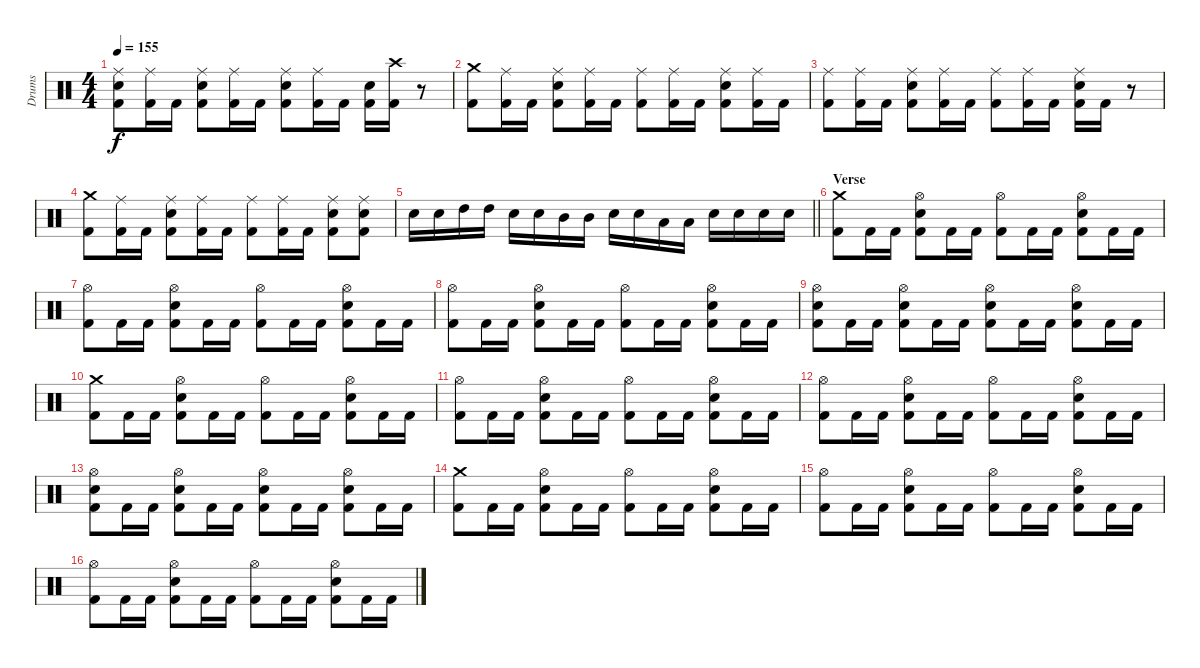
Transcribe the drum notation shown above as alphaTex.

\track ("Drums" "Drums") {instrument percussion}
\staff {score}
\articulation defaults
\ts (4 4)
\tempo 155
\clef neutral
\ks c
("Ride (middle)" "Electric Snare (hit)" "Kick (hit) 2").8{dy f} ("Ride (middle)" "Kick (hit) 2").16 "Kick (hit) 2".16 ("Ride (middle)" "Electric Snare (hit)" "Kick (hit) 2").8 ("Ride (middle)" "Kick (hit) 2").16 "Kick (hit) 2".16 ("Ride (middle)" "Electric Snare (hit)" "Kick (hit) 2").8 ("Ride (middle)" "Kick (hit) 2").16 "Kick (hit) 2".16 ("Electric Snare (hit)" "Kick (hit) 2").16 ("Crash high (hit)" "Kick (hit) 2").16 r.8 |
("Crash medium (hit)" "Kick (hit) 2").8 ("Ride (middle)" "Kick (hit) 2").16 "Kick (hit) 2".16 ("Ride (middle)" "Electric Snare (hit)" "Kick (hit) 2").8 ("Ride (middle)" "Kick (hit) 2").16 "Kick (hit) 2".16 ("Ride (middle)" "Kick (hit) 2").8 ("Ride (middle)" "Kick (hit) 2").16 "Kick (hit) 2".16 ("Ride (middle)" "Electric Snare (hit)" "Kick (hit) 2").8 ("Ride (middle)" "Kick (hit) 2").16 "Kick (hit) 2".16 |
("Ride (middle)" "Kick (hit) 2").8 ("Ride (middle)" "Kick (hit) 2").16 "Kick (hit) 2".16 ("Ride (middle)" "Electric Snare (hit)" "Kick (hit) 2").8 ("Ride (middle)" "Kick (hit) 2").16 "Kick (hit) 2".16 ("Ride (middle)" "Kick (hit) 2").8 ("Ride (middle)" "Kick (hit) 2").16 "Kick (hit) 2".16 ("Ride (middle)" "Electric Snare (hit)" "Kick (hit) 2").16 "Kick (hit) 2".16 r.8 |
("Crash medium (hit)" "Kick (hit) 2").8 ("Ride (middle)" "Kick (hit) 2").16 "Kick (hit) 2".16 ("Ride (middle)" "Electric Snare (hit)" "Kick (hit) 2").8 ("Ride (middle)" "Kick (hit) 2").16 "Kick (hit) 2".16 ("Ride (middle)" "Kick (hit) 2").8 ("Ride (middle)" "Kick (hit) 2").16 "Kick (hit) 2".16 ("Ride (middle)" "Electric Snare (hit)" "Kick (hit) 2").8 ("Ride (middle)" "Electric Snare (hit)" "Kick (hit) 2").8 |
\barLineRight lightlight "Electric Snare (hit)".16 "Electric Snare (hit)".16 "High Tom (hit)".16 "High Tom (hit)".16 "Electric Snare (hit)".16 "Electric Snare (hit)".16 "Mid Tom (hit)".16 "Mid Tom (hit)".16 "Electric Snare (hit)".16 "Electric Snare (hit)".16 "Low Tom (hit)".16 "Low Tom (hit)".16 "Electric Snare (hit)".16 "Electric Snare (hit)".16 "Electric Snare (hit)".16 "Electric Snare (hit)".16
|
\section ("" "Verse")
("Crash medium (hit)" "Kick (hit) 2").8 "Kick (hit) 2".16 "Kick (hit) 2".16 ("Hi-Hat (open)" "Electric Snare (hit)" "Kick (hit) 2").8 "Kick (hit) 2".16 "Kick (hit) 2".16 ("Hi-Hat (open)" "Kick (hit) 2").8 "Kick (hit) 2".16 "Kick (hit) 2".16 ("Hi-Hat (open)" "Electric Snare (hit)" "Kick (hit) 2").8 "Kick (hit) 2".16 "Kick (hit) 2".16 |
("Hi-Hat (open)" "Kick (hit) 2").8 "Kick (hit) 2".16 "Kick (hit) 2".16 ("Hi-Hat (open)" "Electric Snare (hit)" "Kick (hit) 2").8 "Kick (hit) 2".16 "Kick (hit) 2".16 ("Hi-Hat (open)" "Kick (hit) 2").8 "Kick (hit) 2".16 "Kick (hit) 2".16 ("Hi-Hat (open)" "Electric Snare (hit)" "Kick (hit) 2").8 "Kick (hit) 2".16 "Kick (hit) 2".16 |
("Hi-Hat (open)" "Kick (hit) 2").8 "Kick (hit) 2".16 "Kick (hit) 2".16 ("Hi-Hat (open)" "Electric Snare (hit)" "Kick (hit) 2").8 "Kick (hit) 2".16 "Kick (hit) 2".16 ("Hi-Hat (open)" "Kick (hit) 2").8 "Kick (hit) 2".16 "Kick (hit) 2".16 ("Hi-Hat (open)" "Electric Snare (hit)" "Kick (hit) 2").8 "Kick (hit) 2".16 "Kick (hit) 2".16 |
("Hi-Hat (open)" "Electric Snare (hit)" "Kick (hit) 2").8 "Kick (hit) 2".16 "Kick (hit) 2".16 ("Hi-Hat (open)" "Electric Snare (hit)" "Kick (hit) 2").8 "Kick (hit) 2".16 "Kick (hit) 2".16 ("Hi-Hat (open)" "Electric Snare (hit)" "Kick (hit) 2").8 "Kick (hit) 2".16 "Kick (hit) 2".16 ("Hi-Hat (open)" "Electric Snare (hit)" "Kick (hit) 2").8 "Kick (hit) 2".16 "Kick (hit) 2".16 |
("Crash medium (hit)" "Kick (hit) 2").8 "Kick (hit) 2".16 "Kick (hit) 2".16 ("Hi-Hat (open)" "Electric Snare (hit)" "Kick (hit) 2").8 "Kick (hit) 2".16 "Kick (hit) 2".16 ("Hi-Hat (open)" "Kick (hit) 2").8 "Kick (hit) 2".16 "Kick (hit) 2".16 ("Hi-Hat (open)" "Electric Snare (hit)" "Kick (hit) 2").8 "Kick (hit) 2".16 "Kick (hit) 2".16 |
("Hi-Hat (open)" "Kick (hit) 2").8 "Kick (hit) 2".16 "Kick (hit) 2".16 ("Hi-Hat (open)" "Electric Snare (hit)" "Kick (hit) 2").8 "Kick (hit) 2".16 "Kick (hit) 2".16 ("Hi-Hat (open)" "Kick (hit) 2").8 "Kick (hit) 2".16 "Kick (hit) 2".16 ("Hi-Hat (open)" "Electric Snare (hit)" "Kick (hit) 2").8 "Kick (hit) 2".16 "Kick (hit) 2".16 |
("Hi-Hat (open)" "Kick (hit) 2").8 "Kick (hit) 2".16 "Kick (hit) 2".16 ("Hi-Hat (open)" "Electric Snare (hit)" "Kick (hit) 2").8 "Kick (hit) 2".16 "Kick (hit) 2".16 ("Hi-Hat (open)" "Kick (hit) 2").8 "Kick (hit) 2".16 "Kick (hit) 2".16 ("Hi-Hat (open)" "Electric Snare (hit)" "Kick (hit) 2").8 "Kick (hit) 2".16 "Kick (hit) 2".16 |
("Hi-Hat (open)" "Electric Snare (hit)" "Kick (hit) 2").8 "Kick (hit) 2".16 "Kick (hit) 2".16 ("Hi-Hat (open)" "Electric Snare (hit)" "Kick (hit) 2").8 "Kick (hit) 2".16 "Kick (hit) 2".16 ("Hi-Hat (open)" "Electric Snare (hit)" "Kick (hit) 2").8 "Kick (hit) 2".16 "Kick (hit) 2".16 ("Hi-Hat (open)" "Electric Snare (hit)" "Kick (hit) 2").8 "Kick (hit) 2".16 "Kick (hit) 2".16 |
("Crash medium (hit)" "Kick (hit) 2").8 "Kick (hit) 2".16 "Kick (hit) 2".16 ("Hi-Hat (open)" "Electric Snare (hit)" "Kick (hit) 2").8 "Kick (hit) 2".16 "Kick (hit) 2".16 ("Hi-Hat (open)" "Kick (hit) 2").8 "Kick (hit) 2".16 "Kick (hit) 2".16 ("Hi-Hat (open)" "Electric Snare (hit)" "Kick (hit) 2").8 "Kick (hit) 2".16 "Kick (hit) 2".16 |
("Hi-Hat (open)" "Kick (hit) 2").8 "Kick (hit) 2".16 "Kick (hit) 2".16 ("Hi-Hat (open)" "Electric Snare (hit)" "Kick (hit) 2").8 "Kick (hit) 2".16 "Kick (hit) 2".16 ("Hi-Hat (open)" "Kick (hit) 2").8 "Kick (hit) 2".16 "Kick (hit) 2".16 ("Hi-Hat (open)" "Electric Snare (hit)" "Kick (hit) 2").8 "Kick (hit) 2".16 "Kick (hit) 2".16 |
("Hi-Hat (open)" "Kick (hit) 2").8 "Kick (hit) 2".16 "Kick (hit) 2".16 ("Hi-Hat (open)" "Electric Snare (hit)" "Kick (hit) 2").8 "Kick (hit) 2".16 "Kick (hit) 2".16 ("Hi-Hat (open)" "Kick (hit) 2").8 "Kick (hit) 2".16 "Kick (hit) 2".16 ("Hi-Hat (open)" "Electric Snare (hit)" "Kick (hit) 2").8 "Kick (hit) 2".16 "Kick (hit) 2".16
